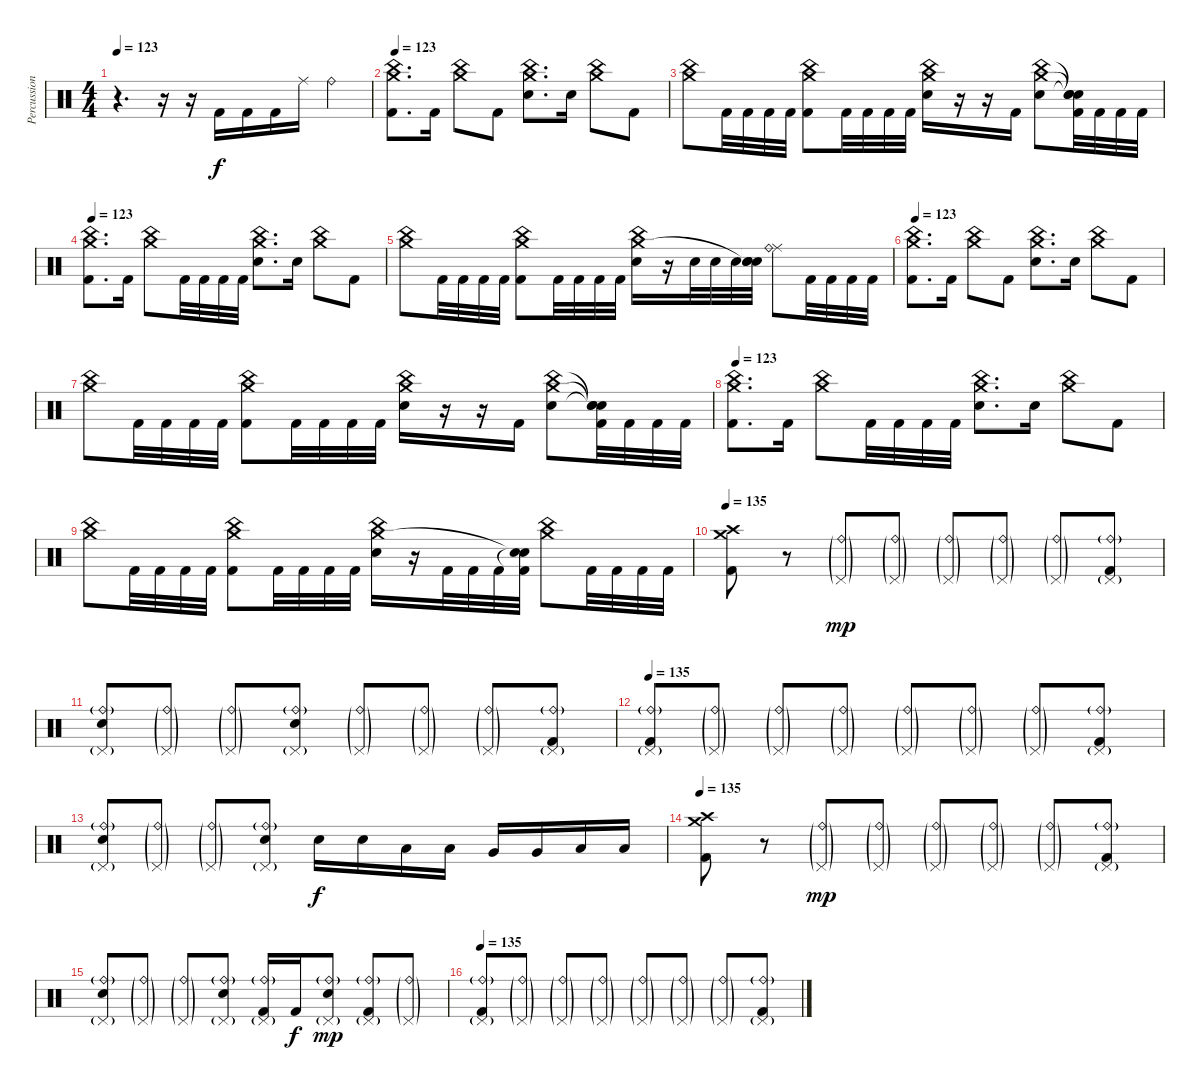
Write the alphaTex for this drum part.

\track ("Percussions" "Percussion") {instrument percussion}
\staff {score}
\articulation defaults
\ts (4 4)
\tempo 123
\clef neutral
\ks c
r.4{d dy f} r.16 r.16 "Kick (hit) 2".16 "Kick (hit) 2".16 "Kick (hit) 2".16 "Ride (middle)".16 "Ride (bell)".4 |
\tempo 123
("China (hit)" "Crash medium (hit)" "Kick (hit) 2").8{d} "Kick (hit) 2".16 ("China (hit)" "Crash medium (hit)").8 "Kick (hit) 2".8 ("China (hit)" "Crash medium (hit)" "Electric Snare (hit)").8{d} "Electric Snare (hit)".16 ("China (hit)" "Crash medium (hit)").8 "Kick (hit) 2".8 |
("China (hit)" "Crash medium (hit)").8 "Kick (hit) 2".32 "Kick (hit) 2".32 "Kick (hit) 2".32 "Kick (hit) 2".32 ("China (hit)" "Crash medium (hit)" "Kick (hit) 2").8 "Kick (hit) 2".32 "Kick (hit) 2".32 "Kick (hit) 2".32 "Kick (hit) 2".32 ("China (hit)" "Crash medium (hit)" "Electric Snare (hit)").16 r.16 r.16 "Kick (hit) 2".16 ("China (hit)" "Crash medium (hit)" "Electric Snare (hit)").8 ("Snare (hit)"{t} "Snare (hit)"{t} "Snare (hit)"{t} "Kick (hit) 2").32 "Kick (hit) 2".32 "Kick (hit) 2".32 "Kick (hit) 2".32 |
\tempo 123
("China (hit)" "Crash medium (hit)" "Kick (hit) 2").8{d} "Kick (hit) 2".16 ("China (hit)" "Crash medium (hit)").8 "Kick (hit) 2".32 "Kick (hit) 2".32 "Kick (hit) 2".32 "Kick (hit) 2".32 ("China (hit)" "Crash medium (hit)" "Electric Snare (hit)").8{d} "Electric Snare (hit)".16 ("China (hit)" "Crash medium (hit)").8 "Kick (hit) 2".8 |
("China (hit)" "Crash medium (hit)").8 "Kick (hit) 2".32 "Kick (hit) 2".32 "Kick (hit) 2".32 "Kick (hit) 2".32 ("China (hit)" "Crash medium (hit)" "Kick (hit) 2").8 "Kick (hit) 2".32 "Kick (hit) 2".32 "Kick (hit) 2".32 "Kick (hit) 2".32 ("China (hit)" "Crash medium (hit)" "Electric Snare (hit)").16 r.16 "Electric Snare (hit)".32 "Electric Snare (hit)".32 "Electric Snare (hit)".32 ("Snare (hit)"{t} "Snare (hit)"{t} "Electric Snare (hit)").32 ("Ride (middle)" "Ride (bell)").8 "Kick (hit) 2".32 "Kick (hit) 2".32 "Kick (hit) 2".32 "Kick (hit) 2".32 |
\tempo 123
("China (hit)" "Crash medium (hit)" "Kick (hit) 2").8{d} "Kick (hit) 2".16 ("China (hit)" "Crash medium (hit)").8 "Kick (hit) 2".8 ("China (hit)" "Crash medium (hit)" "Electric Snare (hit)").8{d} "Electric Snare (hit)".16 ("China (hit)" "Crash medium (hit)").8 "Kick (hit) 2".8 |
("China (hit)" "Crash medium (hit)").8 "Kick (hit) 2".32 "Kick (hit) 2".32 "Kick (hit) 2".32 "Kick (hit) 2".32 ("China (hit)" "Crash medium (hit)" "Kick (hit) 2").8 "Kick (hit) 2".32 "Kick (hit) 2".32 "Kick (hit) 2".32 "Kick (hit) 2".32 ("China (hit)" "Crash medium (hit)" "Electric Snare (hit)").16 r.16 r.16 "Kick (hit) 2".16 ("China (hit)" "Crash medium (hit)" "Electric Snare (hit)").8 ("Snare (hit)"{t} "Snare (hit)"{t} "Snare (hit)"{t} "Kick (hit) 2").32 "Kick (hit) 2".32 "Kick (hit) 2".32 "Kick (hit) 2".32 |
\tempo 123
("China (hit)" "Crash medium (hit)" "Kick (hit) 2").8{d} "Kick (hit) 2".16 ("China (hit)" "Crash medium (hit)").8 "Kick (hit) 2".32 "Kick (hit) 2".32 "Kick (hit) 2".32 "Kick (hit) 2".32 ("China (hit)" "Crash medium (hit)" "Electric Snare (hit)").8{d} "Electric Snare (hit)".16 ("China (hit)" "Crash medium (hit)").8 "Kick (hit) 2".8 |
("China (hit)" "Crash medium (hit)").8 "Kick (hit) 2".32 "Kick (hit) 2".32 "Kick (hit) 2".32 "Kick (hit) 2".32 ("China (hit)" "Crash medium (hit)" "Kick (hit) 2").8 "Kick (hit) 2".32 "Kick (hit) 2".32 "Kick (hit) 2".32 "Kick (hit) 2".32 ("China (hit)" "Crash medium (hit)" "Electric Snare (hit)").16 r.16 "Kick (hit) 2".32 "Kick (hit) 2".32 "Kick (hit) 2".32 ("Snare (hit)"{t} "Snare (hit)"{t} "Kick (hit) 2").32 ("China (hit)" "Crash medium (hit)").8 "Kick (hit) 2".32 "Kick (hit) 2".32 "Kick (hit) 2".32 "Kick (hit) 2".32 |
\tempo 135
("Crash medium (hit)" "Crash high (hit)" "Kick (hit) 2").8 r.8 ("Ride (bell)"{g} "Pedal Hi-Hat (hit)"{g}).8{dy mp} ("Ride (bell)"{g} "Pedal Hi-Hat (hit)"{g}).8 ("Ride (bell)"{g} "Pedal Hi-Hat (hit)"{g}).8 ("Ride (bell)"{g} "Pedal Hi-Hat (hit)"{g}).8 ("Ride (bell)"{g} "Pedal Hi-Hat (hit)"{g}).8 ("Ride (bell)"{g} "Pedal Hi-Hat (hit)"{g} "Kick (hit) 2").8 |
("Ride (bell)"{g} "Pedal Hi-Hat (hit)"{g} "Electric Snare (hit)").8 ("Ride (bell)"{g} "Pedal Hi-Hat (hit)"{g}).8 ("Ride (bell)"{g} "Pedal Hi-Hat (hit)"{g}).8 ("Ride (bell)"{g} "Pedal Hi-Hat (hit)"{g} "Electric Snare (hit)").8 ("Ride (bell)"{g} "Pedal Hi-Hat (hit)"{g}).8 ("Ride (bell)"{g} "Pedal Hi-Hat (hit)"{g}).8 ("Ride (bell)"{g} "Pedal Hi-Hat (hit)"{g}).8 ("Ride (bell)"{g} "Pedal Hi-Hat (hit)"{g} "Kick (hit) 2").8 |
\tempo 135
("Ride (bell)"{g} "Pedal Hi-Hat (hit)"{g} "Kick (hit) 2").8 ("Ride (bell)"{g} "Pedal Hi-Hat (hit)"{g}).8 ("Ride (bell)"{g} "Pedal Hi-Hat (hit)"{g}).8 ("Ride (bell)"{g} "Pedal Hi-Hat (hit)"{g}).8 ("Ride (bell)"{g} "Pedal Hi-Hat (hit)"{g}).8 ("Ride (bell)"{g} "Pedal Hi-Hat (hit)"{g}).8 ("Ride (bell)"{g} "Pedal Hi-Hat (hit)"{g}).8 ("Ride (bell)"{g} "Pedal Hi-Hat (hit)"{g} "Kick (hit) 2").8 |
("Ride (bell)"{g} "Pedal Hi-Hat (hit)"{g} "Electric Snare (hit)").8 ("Ride (bell)"{g} "Pedal Hi-Hat (hit)"{g}).8 ("Ride (bell)"{g} "Pedal Hi-Hat (hit)"{g}).8 ("Ride (bell)"{g} "Pedal Hi-Hat (hit)"{g} "Electric Snare (hit)").8 "Electric Snare (hit)".16{dy f} "Electric Snare (hit)".16 "Low Tom (hit)".16 "Low Tom (hit)".16 "Very Low Tom (hit)".16 "Very Low Tom (hit)".16 "Low Floor Tom (hit)".16 "Low Floor Tom (hit)".16 |
\tempo 135
("Crash medium (hit)" "Crash high (hit)" "Kick (hit) 2").8 r.8 ("Ride (bell)"{g} "Pedal Hi-Hat (hit)"{g}).8{dy mp} ("Ride (bell)"{g} "Pedal Hi-Hat (hit)"{g}).8 ("Ride (bell)"{g} "Pedal Hi-Hat (hit)"{g}).8 ("Ride (bell)"{g} "Pedal Hi-Hat (hit)"{g}).8 ("Ride (bell)"{g} "Pedal Hi-Hat (hit)"{g}).8 ("Ride (bell)"{g} "Pedal Hi-Hat (hit)"{g} "Kick (hit) 2").8 |
("Ride (bell)"{g} "Pedal Hi-Hat (hit)"{g} "Electric Snare (hit)").8 ("Ride (bell)"{g} "Pedal Hi-Hat (hit)"{g}).8 ("Ride (bell)"{g} "Pedal Hi-Hat (hit)"{g}).8 ("Ride (bell)"{g} "Pedal Hi-Hat (hit)"{g} "Electric Snare (hit)").8 ("Ride (bell)"{g} "Pedal Hi-Hat (hit)"{g} "Kick (hit) 2").16 "Kick (hit) 2".16{dy f} ("Ride (bell)"{g} "Pedal Hi-Hat (hit)"{g} "Electric Snare (hit)").8{dy mp} ("Ride (bell)"{g} "Pedal Hi-Hat (hit)"{g} "Kick (hit) 2").8 ("Ride (bell)"{g} "Pedal Hi-Hat (hit)"{g}).8 |
\tempo 135
("Ride (bell)"{g} "Pedal Hi-Hat (hit)"{g} "Kick (hit) 2").8 ("Ride (bell)"{g} "Pedal Hi-Hat (hit)"{g}).8 ("Ride (bell)"{g} "Pedal Hi-Hat (hit)"{g}).8 ("Ride (bell)"{g} "Pedal Hi-Hat (hit)"{g}).8 ("Ride (bell)"{g} "Pedal Hi-Hat (hit)"{g}).8 ("Ride (bell)"{g} "Pedal Hi-Hat (hit)"{g}).8 ("Ride (bell)"{g} "Pedal Hi-Hat (hit)"{g}).8 ("Ride (bell)"{g} "Pedal Hi-Hat (hit)"{g} "Kick (hit) 2").8
